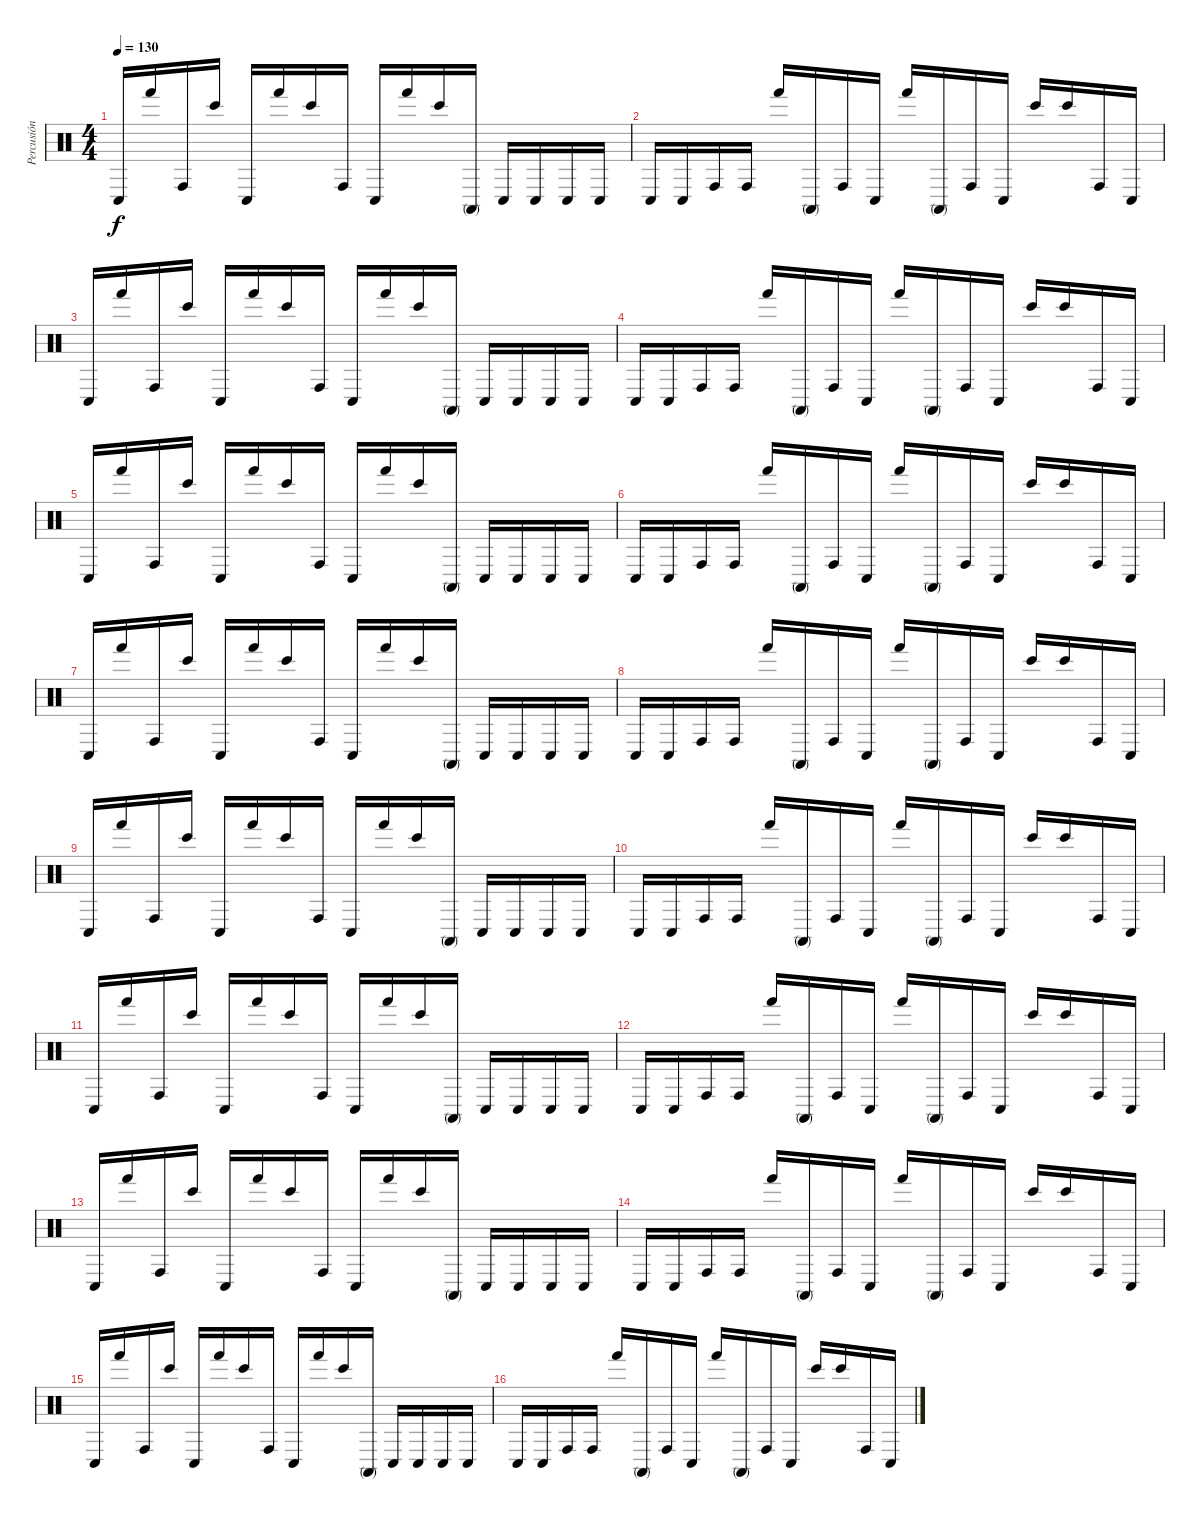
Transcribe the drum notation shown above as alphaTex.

\track ("Percusión" "Percusión") {instrument percussion}
\staff {score}
\articulation defaults
\ts (4 4)
\tempo 130
\clef neutral
\ks c "Conga low (hit)".16{dy f} "Hand (hit)".16 "Conga high (hit)".16 "Bongo High (hit)".16 "Conga low (hit)".16 "Hand (hit)".16 "Bongo High (hit)".16 "Conga high (hit)".16 "Conga low (hit)".16 "Hand (hit)".16 "Bongo High (hit)".16 "Conga high (mute)".16 "Conga low (hit)".16 "Conga low (hit)".16 "Conga low (hit)".16 "Conga low (hit)".16
|
"Conga low (hit)".16 "Conga low (hit)".16 "Conga high (hit)".16 "Conga high (hit)".16 "Hand (hit)".16 "Conga high (mute)".16 "Conga high (hit)".16 "Conga low (hit)".16 "Hand (hit)".16 "Conga high (mute)".16 "Conga high (hit)".16 "Conga low (hit)".16 "Bongo High (hit)".16 "Bongo High (hit)".16 "Conga high (hit)".16 "Conga low (hit)".16 |
"Conga low (hit)".16 "Hand (hit)".16 "Conga high (hit)".16 "Bongo High (hit)".16 "Conga low (hit)".16 "Hand (hit)".16 "Bongo High (hit)".16 "Conga high (hit)".16 "Conga low (hit)".16 "Hand (hit)".16 "Bongo High (hit)".16 "Conga high (mute)".16 "Conga low (hit)".16 "Conga low (hit)".16 "Conga low (hit)".16 "Conga low (hit)".16 |
"Conga low (hit)".16 "Conga low (hit)".16 "Conga high (hit)".16 "Conga high (hit)".16 "Hand (hit)".16 "Conga high (mute)".16 "Conga high (hit)".16 "Conga low (hit)".16 "Hand (hit)".16 "Conga high (mute)".16 "Conga high (hit)".16 "Conga low (hit)".16 "Bongo High (hit)".16 "Bongo High (hit)".16 "Conga high (hit)".16 "Conga low (hit)".16 |
"Conga low (hit)".16 "Hand (hit)".16 "Conga high (hit)".16 "Bongo High (hit)".16 "Conga low (hit)".16 "Hand (hit)".16 "Bongo High (hit)".16 "Conga high (hit)".16 "Conga low (hit)".16 "Hand (hit)".16 "Bongo High (hit)".16 "Conga high (mute)".16 "Conga low (hit)".16 "Conga low (hit)".16 "Conga low (hit)".16 "Conga low (hit)".16 |
"Conga low (hit)".16 "Conga low (hit)".16 "Conga high (hit)".16 "Conga high (hit)".16 "Hand (hit)".16 "Conga high (mute)".16 "Conga high (hit)".16 "Conga low (hit)".16 "Hand (hit)".16 "Conga high (mute)".16 "Conga high (hit)".16 "Conga low (hit)".16 "Bongo High (hit)".16 "Bongo High (hit)".16 "Conga high (hit)".16 "Conga low (hit)".16 |
"Conga low (hit)".16 "Hand (hit)".16 "Conga high (hit)".16 "Bongo High (hit)".16 "Conga low (hit)".16 "Hand (hit)".16 "Bongo High (hit)".16 "Conga high (hit)".16 "Conga low (hit)".16 "Hand (hit)".16 "Bongo High (hit)".16 "Conga high (mute)".16 "Conga low (hit)".16 "Conga low (hit)".16 "Conga low (hit)".16 "Conga low (hit)".16 |
"Conga low (hit)".16 "Conga low (hit)".16 "Conga high (hit)".16 "Conga high (hit)".16 "Hand (hit)".16 "Conga high (mute)".16 "Conga high (hit)".16 "Conga low (hit)".16 "Hand (hit)".16 "Conga high (mute)".16 "Conga high (hit)".16 "Conga low (hit)".16 "Bongo High (hit)".16 "Bongo High (hit)".16 "Conga high (hit)".16 "Conga low (hit)".16 |
"Conga low (hit)".16 "Hand (hit)".16 "Conga high (hit)".16 "Bongo High (hit)".16 "Conga low (hit)".16 "Hand (hit)".16 "Bongo High (hit)".16 "Conga high (hit)".16 "Conga low (hit)".16 "Hand (hit)".16 "Bongo High (hit)".16 "Conga high (mute)".16 "Conga low (hit)".16 "Conga low (hit)".16 "Conga low (hit)".16 "Conga low (hit)".16 |
"Conga low (hit)".16 "Conga low (hit)".16 "Conga high (hit)".16 "Conga high (hit)".16 "Hand (hit)".16 "Conga high (mute)".16 "Conga high (hit)".16 "Conga low (hit)".16 "Hand (hit)".16 "Conga high (mute)".16 "Conga high (hit)".16 "Conga low (hit)".16 "Bongo High (hit)".16 "Bongo High (hit)".16 "Conga high (hit)".16 "Conga low (hit)".16 |
"Conga low (hit)".16 "Hand (hit)".16 "Conga high (hit)".16 "Bongo High (hit)".16 "Conga low (hit)".16 "Hand (hit)".16 "Bongo High (hit)".16 "Conga high (hit)".16 "Conga low (hit)".16 "Hand (hit)".16 "Bongo High (hit)".16 "Conga high (mute)".16 "Conga low (hit)".16 "Conga low (hit)".16 "Conga low (hit)".16 "Conga low (hit)".16 |
"Conga low (hit)".16 "Conga low (hit)".16 "Conga high (hit)".16 "Conga high (hit)".16 "Hand (hit)".16 "Conga high (mute)".16 "Conga high (hit)".16 "Conga low (hit)".16 "Hand (hit)".16 "Conga high (mute)".16 "Conga high (hit)".16 "Conga low (hit)".16 "Bongo High (hit)".16 "Bongo High (hit)".16 "Conga high (hit)".16 "Conga low (hit)".16 |
"Conga low (hit)".16 "Hand (hit)".16 "Conga high (hit)".16 "Bongo High (hit)".16 "Conga low (hit)".16 "Hand (hit)".16 "Bongo High (hit)".16 "Conga high (hit)".16 "Conga low (hit)".16 "Hand (hit)".16 "Bongo High (hit)".16 "Conga high (mute)".16 "Conga low (hit)".16 "Conga low (hit)".16 "Conga low (hit)".16 "Conga low (hit)".16 |
"Conga low (hit)".16 "Conga low (hit)".16 "Conga high (hit)".16 "Conga high (hit)".16 "Hand (hit)".16 "Conga high (mute)".16 "Conga high (hit)".16 "Conga low (hit)".16 "Hand (hit)".16 "Conga high (mute)".16 "Conga high (hit)".16 "Conga low (hit)".16 "Bongo High (hit)".16 "Bongo High (hit)".16 "Conga high (hit)".16 "Conga low (hit)".16 |
"Conga low (hit)".16 "Hand (hit)".16 "Conga high (hit)".16 "Bongo High (hit)".16 "Conga low (hit)".16 "Hand (hit)".16 "Bongo High (hit)".16 "Conga high (hit)".16 "Conga low (hit)".16 "Hand (hit)".16 "Bongo High (hit)".16 "Conga high (mute)".16 "Conga low (hit)".16 "Conga low (hit)".16 "Conga low (hit)".16 "Conga low (hit)".16 |
"Conga low (hit)".16 "Conga low (hit)".16 "Conga high (hit)".16 "Conga high (hit)".16 "Hand (hit)".16 "Conga high (mute)".16 "Conga high (hit)".16 "Conga low (hit)".16 "Hand (hit)".16 "Conga high (mute)".16 "Conga high (hit)".16 "Conga low (hit)".16 "Bongo High (hit)".16 "Bongo High (hit)".16 "Conga high (hit)".16 "Conga low (hit)".16
